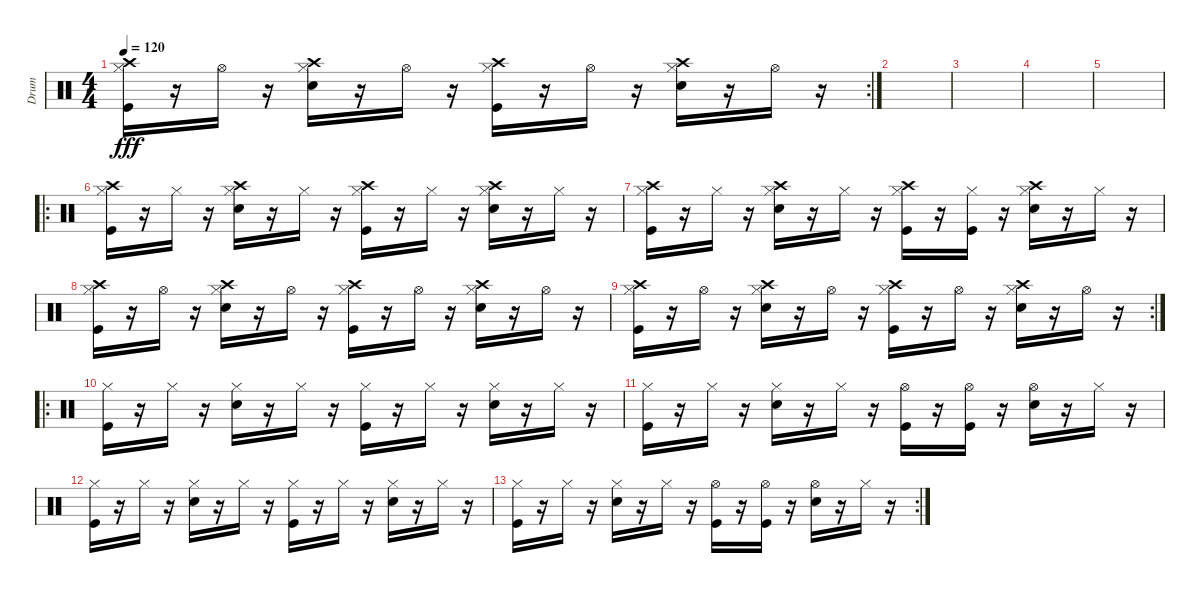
\track ("Drum" "Drum") {instrument percussion}
\staff {score}
\articulation defaults
\rc 2
\ts (4 4)
\tempo 120
\clef neutral
\ks c
("Crash high (hit)" "Hi-Hat (closed)" "Kick (hit)").16{dy fff} r.16 "Hi-Hat (open)".16 r.16 ("Crash high (hit)" "Hi-Hat (closed)" "Electric Snare (hit)").16 r.16 "Hi-Hat (open)".16 r.16 ("Crash high (hit)" "Hi-Hat (closed)" "Kick (hit)").16 r.16 "Hi-Hat (open)".16 r.16 ("Crash high (hit)" "Hi-Hat (closed)" "Electric Snare (hit)").16 r.16 "Hi-Hat (open)".16 r.16 |
|
|
|
|
\ro
("Crash high (hit)" "Hi-Hat (closed)" "Kick (hit)").16 r.16 "Hi-Hat (closed)".16 r.16 ("Crash high (hit)" "Hi-Hat (closed)" "Electric Snare (hit)").16 r.16 "Hi-Hat (closed)".16 r.16 ("Crash high (hit)" "Hi-Hat (closed)" "Kick (hit)").16 r.16 "Hi-Hat (closed)".16 r.16 ("Crash high (hit)" "Hi-Hat (closed)" "Electric Snare (hit)").16 r.16 "Hi-Hat (closed)".16 r.16 |
("Crash high (hit)" "Hi-Hat (closed)" "Kick (hit)").16 r.16 "Hi-Hat (closed)".16 r.16 ("Crash high (hit)" "Hi-Hat (closed)" "Electric Snare (hit)").16 r.16 "Hi-Hat (closed)".16 r.16 ("Crash high (hit)" "Hi-Hat (closed)" "Kick (hit)").16 r.16 ("Hi-Hat (closed)" "Kick (hit)").16 r.16 ("Crash high (hit)" "Hi-Hat (closed)" "Electric Snare (hit)").16 r.16 "Hi-Hat (closed)".16 r.16 |
("Crash high (hit)" "Hi-Hat (closed)" "Kick (hit)").16 r.16 "Hi-Hat (open)".16 r.16 ("Crash high (hit)" "Hi-Hat (closed)" "Electric Snare (hit)").16 r.16 "Hi-Hat (open)".16 r.16 ("Crash high (hit)" "Hi-Hat (closed)" "Kick (hit)").16 r.16 "Hi-Hat (open)".16 r.16 ("Crash high (hit)" "Hi-Hat (closed)" "Electric Snare (hit)").16 r.16 "Hi-Hat (open)".16 r.16 |
\rc 2
("Crash high (hit)" "Hi-Hat (closed)" "Kick (hit)").16 r.16 "Hi-Hat (open)".16 r.16 ("Crash high (hit)" "Hi-Hat (closed)" "Electric Snare (hit)").16 r.16 "Hi-Hat (open)".16 r.16 ("Crash high (hit)" "Hi-Hat (closed)" "Kick (hit)").16 r.16 "Hi-Hat (open)".16 r.16 ("Crash high (hit)" "Hi-Hat (closed)" "Electric Snare (hit)").16 r.16 "Hi-Hat (open)".16 r.16 |
\ro
("Hi-Hat (closed)" "Kick (hit)").16 r.16 "Hi-Hat (closed)".16 r.16 ("Hi-Hat (closed)" "Electric Snare (hit)").16 r.16 "Hi-Hat (closed)".16 r.16 ("Hi-Hat (closed)" "Kick (hit)").16 r.16 "Hi-Hat (closed)".16 r.16 ("Hi-Hat (closed)" "Electric Snare (hit)").16 r.16 "Hi-Hat (closed)".16 r.16 |
("Hi-Hat (closed)" "Kick (hit)").16 r.16 "Hi-Hat (closed)".16 r.16 ("Hi-Hat (closed)" "Electric Snare (hit)").16 r.16 "Hi-Hat (closed)".16 r.16 ("Hi-Hat (open)" "Kick (hit)").16 r.16 ("Hi-Hat (open)" "Kick (hit)").16 r.16 ("Hi-Hat (open)" "Electric Snare (hit)").16 r.16 "Hi-Hat (closed)".16 r.16 |
("Hi-Hat (closed)" "Kick (hit)").16 r.16 "Hi-Hat (closed)".16 r.16 ("Hi-Hat (closed)" "Electric Snare (hit)").16 r.16 "Hi-Hat (closed)".16 r.16 ("Hi-Hat (closed)" "Kick (hit)").16 r.16 "Hi-Hat (closed)".16 r.16 ("Hi-Hat (closed)" "Electric Snare (hit)").16 r.16 "Hi-Hat (closed)".16 r.16 |
\rc 2
("Hi-Hat (closed)" "Kick (hit)").16 r.16 "Hi-Hat (closed)".16 r.16 ("Hi-Hat (closed)" "Electric Snare (hit)").16 r.16 "Hi-Hat (closed)".16 r.16 ("Hi-Hat (open)" "Kick (hit)").16 r.16 ("Hi-Hat (open)" "Kick (hit)").16 r.16 ("Hi-Hat (open)" "Electric Snare (hit)").16 r.16 "Hi-Hat (closed)".16 r.16
